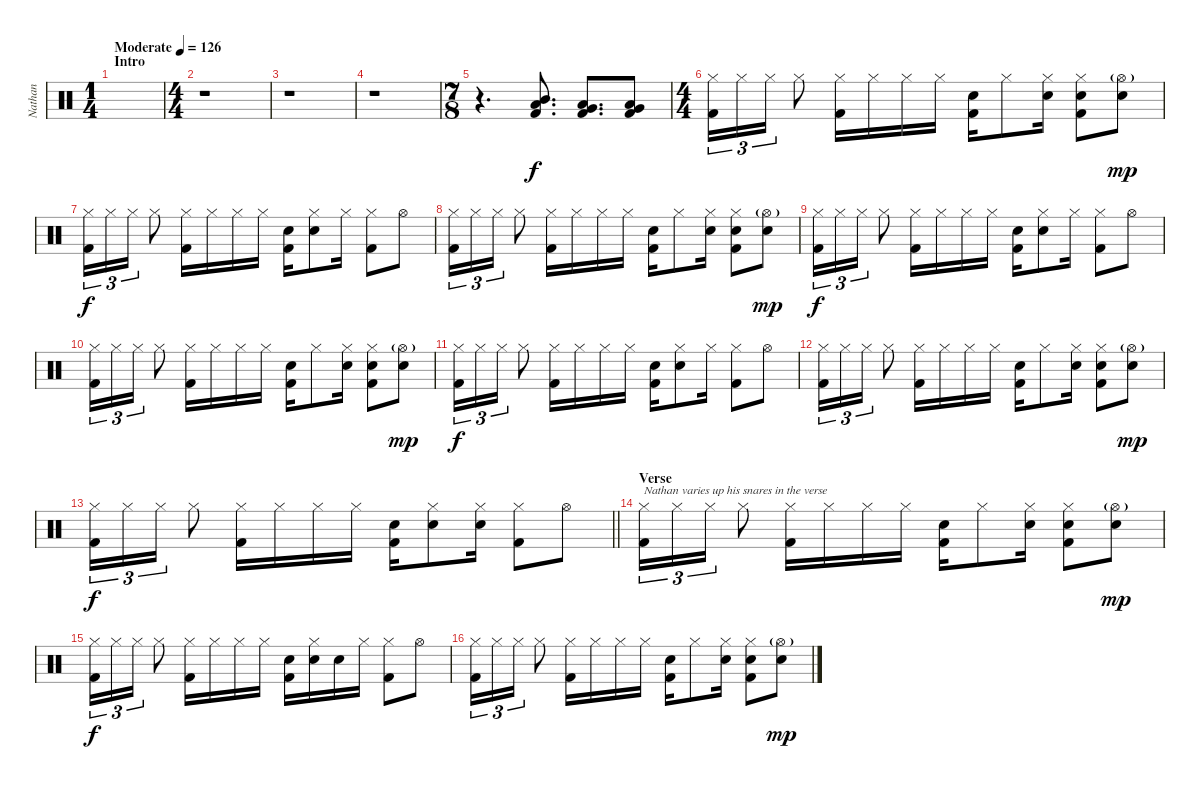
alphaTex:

\track ("Nathan" "Nathan") {instrument percussion}
\staff {score}
\articulation defaults
\ts (1 4)
\section ("" "Intro")
\tempo (126 "Moderate")
\clef neutral
\ks c
|
\ts (4 4)
r.1 |
r.1 |
r.1 |
\ts (7 8)
r.4{d} ("Mid Tom (hit)" "Low Tom (hit)" "Kick (hit) 2").8{d} ("Low Tom (hit)" "Very Low Tom (hit)" "Kick (hit) 2").8{d} ("Very Low Tom (hit)" "Low Floor Tom (hit)" "Kick (hit) 2").8 |
\ts (4 4)
("Hi-Hat (closed)" "Kick (hit) 2").16{tu (3 2)} "Hi-Hat (closed)".16{tu (3 2)} "Hi-Hat (closed)".16{tu (3 2)} "Hi-Hat (closed)".8 ("Hi-Hat (closed)" "Kick (hit) 2").16 "Hi-Hat (closed)".16 "Hi-Hat (closed)".16 "Hi-Hat (closed)".16 ("Electric Snare (hit)" "Kick (hit) 2").16 "Hi-Hat (closed)".8 ("Hi-Hat (closed)" "Electric Snare (hit)").16 ("Hi-Hat (closed)" "Electric Snare (hit)" "Kick (hit) 2").8 ("Hi-Hat (open)"{g} "Electric Snare (hit)").8{dy mp} |
("Hi-Hat (closed)" "Kick (hit) 2").16{tu (3 2) dy f} "Hi-Hat (closed)".16{tu (3 2)} "Hi-Hat (closed)".16{tu (3 2)} "Hi-Hat (closed)".8 ("Hi-Hat (closed)" "Kick (hit) 2").16 "Hi-Hat (closed)".16 "Hi-Hat (closed)".16 "Hi-Hat (closed)".16 ("Electric Snare (hit)" "Kick (hit) 2").16 ("Hi-Hat (closed)" "Electric Snare (hit)").8 "Hi-Hat (closed)".16 ("Hi-Hat (closed)" "Kick (hit) 2").8 "Hi-Hat (open)".8 |
("Hi-Hat (closed)" "Kick (hit) 2").16{tu (3 2)} "Hi-Hat (closed)".16{tu (3 2)} "Hi-Hat (closed)".16{tu (3 2)} "Hi-Hat (closed)".8 ("Hi-Hat (closed)" "Kick (hit) 2").16 "Hi-Hat (closed)".16 "Hi-Hat (closed)".16 "Hi-Hat (closed)".16 ("Electric Snare (hit)" "Kick (hit) 2").16 "Hi-Hat (closed)".8 ("Hi-Hat (closed)" "Electric Snare (hit)").16 ("Hi-Hat (closed)" "Electric Snare (hit)" "Kick (hit) 2").8 ("Hi-Hat (open)"{g} "Electric Snare (hit)").8{dy mp} |
("Hi-Hat (closed)" "Kick (hit) 2").16{tu (3 2) dy f} "Hi-Hat (closed)".16{tu (3 2)} "Hi-Hat (closed)".16{tu (3 2)} "Hi-Hat (closed)".8 ("Hi-Hat (closed)" "Kick (hit) 2").16 "Hi-Hat (closed)".16 "Hi-Hat (closed)".16 "Hi-Hat (closed)".16 ("Electric Snare (hit)" "Kick (hit) 2").16 ("Hi-Hat (closed)" "Electric Snare (hit)").8 "Hi-Hat (closed)".16 ("Hi-Hat (closed)" "Kick (hit) 2").8 "Hi-Hat (open)".8 |
("Hi-Hat (closed)" "Kick (hit) 2").16{tu (3 2)} "Hi-Hat (closed)".16{tu (3 2)} "Hi-Hat (closed)".16{tu (3 2)} "Hi-Hat (closed)".8 ("Hi-Hat (closed)" "Kick (hit) 2").16 "Hi-Hat (closed)".16 "Hi-Hat (closed)".16 "Hi-Hat (closed)".16 ("Electric Snare (hit)" "Kick (hit) 2").16 "Hi-Hat (closed)".8 ("Hi-Hat (closed)" "Electric Snare (hit)").16 ("Hi-Hat (closed)" "Electric Snare (hit)" "Kick (hit) 2").8 ("Hi-Hat (open)"{g} "Electric Snare (hit)").8{dy mp} |
("Hi-Hat (closed)" "Kick (hit) 2").16{tu (3 2) dy f} "Hi-Hat (closed)".16{tu (3 2)} "Hi-Hat (closed)".16{tu (3 2)} "Hi-Hat (closed)".8 ("Hi-Hat (closed)" "Kick (hit) 2").16 "Hi-Hat (closed)".16 "Hi-Hat (closed)".16 "Hi-Hat (closed)".16 ("Electric Snare (hit)" "Kick (hit) 2").16 ("Hi-Hat (closed)" "Electric Snare (hit)").8 "Hi-Hat (closed)".16 ("Hi-Hat (closed)" "Kick (hit) 2").8 "Hi-Hat (open)".8 |
("Hi-Hat (closed)" "Kick (hit) 2").16{tu (3 2)} "Hi-Hat (closed)".16{tu (3 2)} "Hi-Hat (closed)".16{tu (3 2)} "Hi-Hat (closed)".8 ("Hi-Hat (closed)" "Kick (hit) 2").16 "Hi-Hat (closed)".16 "Hi-Hat (closed)".16 "Hi-Hat (closed)".16 ("Electric Snare (hit)" "Kick (hit) 2").16 "Hi-Hat (closed)".8 ("Hi-Hat (closed)" "Electric Snare (hit)").16 ("Hi-Hat (closed)" "Electric Snare (hit)" "Kick (hit) 2").8 ("Hi-Hat (open)"{g} "Electric Snare (hit)").8{dy mp} |
\barLineRight lightlight
("Hi-Hat (closed)" "Kick (hit) 2").16{tu (3 2) dy f} "Hi-Hat (closed)".16{tu (3 2)} "Hi-Hat (closed)".16{tu (3 2)} "Hi-Hat (closed)".8 ("Hi-Hat (closed)" "Kick (hit) 2").16 "Hi-Hat (closed)".16 "Hi-Hat (closed)".16 "Hi-Hat (closed)".16 ("Electric Snare (hit)" "Kick (hit) 2").16 ("Hi-Hat (closed)" "Electric Snare (hit)").8 ("Hi-Hat (closed)" "Electric Snare (hit)").16 ("Hi-Hat (closed)" "Kick (hit) 2").8 "Hi-Hat (open)".8 |
\section ("" "Verse")
("Hi-Hat (closed)" "Kick (hit) 2").16{tu (3 2) txt "Nathan varies up his snares in the verse"} "Hi-Hat (closed)".16{tu (3 2)} "Hi-Hat (closed)".16{tu (3 2)} "Hi-Hat (closed)".8 ("Hi-Hat (closed)" "Kick (hit) 2").16 "Hi-Hat (closed)".16 "Hi-Hat (closed)".16 "Hi-Hat (closed)".16 ("Electric Snare (hit)" "Kick (hit) 2").16 "Hi-Hat (closed)".8 ("Hi-Hat (closed)" "Electric Snare (hit)").16 ("Hi-Hat (closed)" "Electric Snare (hit)" "Kick (hit) 2").8 ("Hi-Hat (open)"{g} "Electric Snare (hit)").8{dy mp} |
("Hi-Hat (closed)" "Kick (hit) 2").16{tu (3 2) dy f} "Hi-Hat (closed)".16{tu (3 2)} "Hi-Hat (closed)".16{tu (3 2)} "Hi-Hat (closed)".8 ("Hi-Hat (closed)" "Kick (hit) 2").16 "Hi-Hat (closed)".16 "Hi-Hat (closed)".16 "Hi-Hat (closed)".16 ("Electric Snare (hit)" "Kick (hit) 2").16 ("Hi-Hat (closed)" "Electric Snare (hit)").16 "Electric Snare (hit)".16 "Hi-Hat (closed)".16 ("Hi-Hat (closed)" "Kick (hit) 2").8 "Hi-Hat (open)".8 |
("Hi-Hat (closed)" "Kick (hit) 2").16{tu (3 2)} "Hi-Hat (closed)".16{tu (3 2)} "Hi-Hat (closed)".16{tu (3 2)} "Hi-Hat (closed)".8 ("Hi-Hat (closed)" "Kick (hit) 2").16 "Hi-Hat (closed)".16 "Hi-Hat (closed)".16 "Hi-Hat (closed)".16 ("Electric Snare (hit)" "Kick (hit) 2").16 "Hi-Hat (closed)".8 ("Hi-Hat (closed)" "Electric Snare (hit)").16 ("Hi-Hat (closed)" "Electric Snare (hit)" "Kick (hit) 2").8 ("Hi-Hat (open)"{g} "Electric Snare (hit)").8{dy mp}
